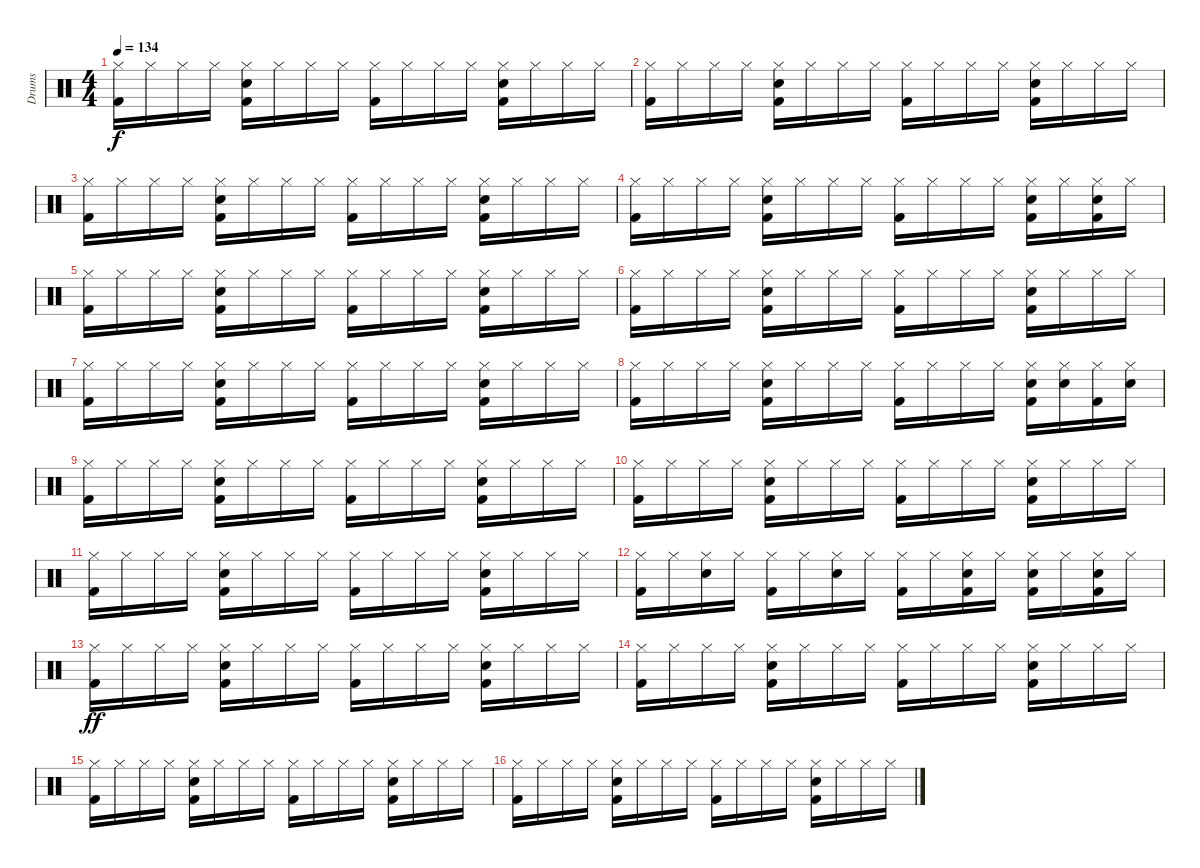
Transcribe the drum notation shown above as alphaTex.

\track ("Drums" "Drums") {instrument percussion}
\staff {score}
\articulation defaults
\ts (4 4)
\tempo 134
\clef neutral
\ks c
("Hi-Hat (closed)" "Kick (hit) 2").16{dy f} "Hi-Hat (closed)".16 "Hi-Hat (closed)".16 "Hi-Hat (closed)".16 ("Hi-Hat (closed)" "Snare (hit) 2" "Kick (hit) 2").16 "Hi-Hat (closed)".16 "Hi-Hat (closed)".16 "Hi-Hat (closed)".16 ("Hi-Hat (closed)" "Kick (hit) 2").16 "Hi-Hat (closed)".16 "Hi-Hat (closed)".16 "Hi-Hat (closed)".16 ("Hi-Hat (closed)" "Snare (hit) 2" "Kick (hit) 2").16 "Hi-Hat (closed)".16 "Hi-Hat (closed)".16 "Hi-Hat (closed)".16 |
("Hi-Hat (closed)" "Kick (hit) 2").16 "Hi-Hat (closed)".16 "Hi-Hat (closed)".16 "Hi-Hat (closed)".16 ("Hi-Hat (closed)" "Snare (hit) 2" "Kick (hit) 2").16 "Hi-Hat (closed)".16 "Hi-Hat (closed)".16 "Hi-Hat (closed)".16 ("Hi-Hat (closed)" "Kick (hit) 2").16 "Hi-Hat (closed)".16 "Hi-Hat (closed)".16 "Hi-Hat (closed)".16 ("Hi-Hat (closed)" "Snare (hit) 2" "Kick (hit) 2").16 "Hi-Hat (closed)".16 "Hi-Hat (closed)".16 "Hi-Hat (closed)".16 |
("Hi-Hat (closed)" "Kick (hit) 2").16 "Hi-Hat (closed)".16 "Hi-Hat (closed)".16 "Hi-Hat (closed)".16 ("Hi-Hat (closed)" "Snare (hit) 2" "Kick (hit) 2").16 "Hi-Hat (closed)".16 "Hi-Hat (closed)".16 "Hi-Hat (closed)".16 ("Hi-Hat (closed)" "Kick (hit) 2").16 "Hi-Hat (closed)".16 "Hi-Hat (closed)".16 "Hi-Hat (closed)".16 ("Hi-Hat (closed)" "Snare (hit) 2" "Kick (hit) 2").16 "Hi-Hat (closed)".16 "Hi-Hat (closed)".16 "Hi-Hat (closed)".16 |
("Hi-Hat (closed)" "Kick (hit) 2").16 "Hi-Hat (closed)".16 "Hi-Hat (closed)".16 "Hi-Hat (closed)".16 ("Hi-Hat (closed)" "Snare (hit) 2" "Kick (hit) 2").16 "Hi-Hat (closed)".16 "Hi-Hat (closed)".16 "Hi-Hat (closed)".16 ("Hi-Hat (closed)" "Kick (hit) 2").16 "Hi-Hat (closed)".16 "Hi-Hat (closed)".16 "Hi-Hat (closed)".16 ("Hi-Hat (closed)" "Snare (hit) 2" "Kick (hit) 2").16 "Hi-Hat (closed)".16 ("Hi-Hat (closed)" "Snare (hit) 2" "Kick (hit) 2").16 "Hi-Hat (closed)".16 |
("Hi-Hat (closed)" "Kick (hit) 2").16 "Hi-Hat (closed)".16 "Hi-Hat (closed)".16 "Hi-Hat (closed)".16 ("Hi-Hat (closed)" "Snare (hit) 2" "Kick (hit) 2").16 "Hi-Hat (closed)".16 "Hi-Hat (closed)".16 "Hi-Hat (closed)".16 ("Hi-Hat (closed)" "Kick (hit) 2").16 "Hi-Hat (closed)".16 "Hi-Hat (closed)".16 "Hi-Hat (closed)".16 ("Hi-Hat (closed)" "Snare (hit) 2" "Kick (hit) 2").16 "Hi-Hat (closed)".16 "Hi-Hat (closed)".16 "Hi-Hat (closed)".16 |
("Hi-Hat (closed)" "Kick (hit) 2").16 "Hi-Hat (closed)".16 "Hi-Hat (closed)".16 "Hi-Hat (closed)".16 ("Hi-Hat (closed)" "Snare (hit) 2" "Kick (hit) 2").16 "Hi-Hat (closed)".16 "Hi-Hat (closed)".16 "Hi-Hat (closed)".16 ("Hi-Hat (closed)" "Kick (hit) 2").16 "Hi-Hat (closed)".16 "Hi-Hat (closed)".16 "Hi-Hat (closed)".16 ("Hi-Hat (closed)" "Snare (hit) 2" "Kick (hit) 2").16 "Hi-Hat (closed)".16 "Hi-Hat (closed)".16 "Hi-Hat (closed)".16 |
("Hi-Hat (closed)" "Kick (hit) 2").16 "Hi-Hat (closed)".16 "Hi-Hat (closed)".16 "Hi-Hat (closed)".16 ("Hi-Hat (closed)" "Snare (hit) 2" "Kick (hit) 2").16 "Hi-Hat (closed)".16 "Hi-Hat (closed)".16 "Hi-Hat (closed)".16 ("Hi-Hat (closed)" "Kick (hit) 2").16 "Hi-Hat (closed)".16 "Hi-Hat (closed)".16 "Hi-Hat (closed)".16 ("Hi-Hat (closed)" "Snare (hit) 2" "Kick (hit) 2").16 "Hi-Hat (closed)".16 "Hi-Hat (closed)".16 "Hi-Hat (closed)".16 |
("Hi-Hat (closed)" "Kick (hit) 2").16 "Hi-Hat (closed)".16 "Hi-Hat (closed)".16 "Hi-Hat (closed)".16 ("Hi-Hat (closed)" "Snare (hit) 2" "Kick (hit) 2").16 "Hi-Hat (closed)".16 "Hi-Hat (closed)".16 "Hi-Hat (closed)".16 ("Hi-Hat (closed)" "Kick (hit) 2").16 "Hi-Hat (closed)".16 "Hi-Hat (closed)".16 "Hi-Hat (closed)".16 ("Hi-Hat (closed)" "Snare (hit) 2" "Kick (hit) 2").16 ("Hi-Hat (closed)" "Snare (hit) 2").16 ("Hi-Hat (closed)" "Kick (hit) 2").16 ("Hi-Hat (closed)" "Snare (hit) 2").16 |
("Hi-Hat (closed)" "Kick (hit) 2").16 "Hi-Hat (closed)".16 "Hi-Hat (closed)".16 "Hi-Hat (closed)".16 ("Hi-Hat (closed)" "Snare (hit) 2" "Kick (hit) 2").16 "Hi-Hat (closed)".16 "Hi-Hat (closed)".16 "Hi-Hat (closed)".16 ("Hi-Hat (closed)" "Kick (hit) 2").16 "Hi-Hat (closed)".16 "Hi-Hat (closed)".16 "Hi-Hat (closed)".16 ("Hi-Hat (closed)" "Snare (hit) 2" "Kick (hit) 2").16 "Hi-Hat (closed)".16 "Hi-Hat (closed)".16 "Hi-Hat (closed)".16 |
("Hi-Hat (closed)" "Kick (hit) 2").16 "Hi-Hat (closed)".16 "Hi-Hat (closed)".16 "Hi-Hat (closed)".16 ("Hi-Hat (closed)" "Snare (hit) 2" "Kick (hit) 2").16 "Hi-Hat (closed)".16 "Hi-Hat (closed)".16 "Hi-Hat (closed)".16 ("Hi-Hat (closed)" "Kick (hit) 2").16 "Hi-Hat (closed)".16 "Hi-Hat (closed)".16 "Hi-Hat (closed)".16 ("Hi-Hat (closed)" "Snare (hit) 2" "Kick (hit) 2").16 "Hi-Hat (closed)".16 "Hi-Hat (closed)".16 "Hi-Hat (closed)".16 |
("Hi-Hat (closed)" "Kick (hit) 2").16 "Hi-Hat (closed)".16 "Hi-Hat (closed)".16 "Hi-Hat (closed)".16 ("Hi-Hat (closed)" "Snare (hit) 2" "Kick (hit) 2").16 "Hi-Hat (closed)".16 "Hi-Hat (closed)".16 "Hi-Hat (closed)".16 ("Hi-Hat (closed)" "Kick (hit) 2").16 "Hi-Hat (closed)".16 "Hi-Hat (closed)".16 "Hi-Hat (closed)".16 ("Hi-Hat (closed)" "Snare (hit) 2" "Kick (hit) 2").16 "Hi-Hat (closed)".16 "Hi-Hat (closed)".16 "Hi-Hat (closed)".16 |
("Hi-Hat (closed)" "Kick (hit) 2").16 "Hi-Hat (closed)".16 ("Hi-Hat (closed)" "Snare (hit) 2").16 "Hi-Hat (closed)".16 ("Hi-Hat (closed)" "Kick (hit) 2").16 "Hi-Hat (closed)".16 ("Hi-Hat (closed)" "Snare (hit) 2").16 "Hi-Hat (closed)".16 ("Hi-Hat (closed)" "Kick (hit) 2").16 "Hi-Hat (closed)".16 ("Hi-Hat (closed)" "Snare (hit) 2" "Kick (hit) 2").16 "Hi-Hat (closed)".16 ("Hi-Hat (closed)" "Snare (hit) 2" "Kick (hit) 2").16 "Hi-Hat (closed)".16 ("Hi-Hat (closed)" "Snare (hit) 2" "Kick (hit) 2").16 "Hi-Hat (closed)".16 |
("Hi-Hat (closed)" "Kick (hit) 2").16{dy ff} "Hi-Hat (closed)".16 "Hi-Hat (closed)".16 "Hi-Hat (closed)".16 ("Hi-Hat (closed)" "Snare (hit) 2" "Kick (hit) 2").16 "Hi-Hat (closed)".16 "Hi-Hat (closed)".16 "Hi-Hat (closed)".16 ("Hi-Hat (closed)" "Kick (hit) 2").16 "Hi-Hat (closed)".16 "Hi-Hat (closed)".16 "Hi-Hat (closed)".16 ("Hi-Hat (closed)" "Snare (hit) 2" "Kick (hit) 2").16 "Hi-Hat (closed)".16 "Hi-Hat (closed)".16 "Hi-Hat (closed)".16 |
("Hi-Hat (closed)" "Kick (hit) 2").16 "Hi-Hat (closed)".16 "Hi-Hat (closed)".16 "Hi-Hat (closed)".16 ("Hi-Hat (closed)" "Snare (hit) 2" "Kick (hit) 2").16 "Hi-Hat (closed)".16 "Hi-Hat (closed)".16 "Hi-Hat (closed)".16 ("Hi-Hat (closed)" "Kick (hit) 2").16 "Hi-Hat (closed)".16 "Hi-Hat (closed)".16 "Hi-Hat (closed)".16 ("Hi-Hat (closed)" "Snare (hit) 2" "Kick (hit) 2").16 "Hi-Hat (closed)".16 "Hi-Hat (closed)".16 "Hi-Hat (closed)".16 |
("Hi-Hat (closed)" "Kick (hit) 2").16 "Hi-Hat (closed)".16 "Hi-Hat (closed)".16 "Hi-Hat (closed)".16 ("Hi-Hat (closed)" "Snare (hit) 2" "Kick (hit) 2").16 "Hi-Hat (closed)".16 "Hi-Hat (closed)".16 "Hi-Hat (closed)".16 ("Hi-Hat (closed)" "Kick (hit) 2").16 "Hi-Hat (closed)".16 "Hi-Hat (closed)".16 "Hi-Hat (closed)".16 ("Hi-Hat (closed)" "Snare (hit) 2" "Kick (hit) 2").16 "Hi-Hat (closed)".16 "Hi-Hat (closed)".16 "Hi-Hat (closed)".16 |
("Hi-Hat (closed)" "Kick (hit) 2").16 "Hi-Hat (closed)".16 "Hi-Hat (closed)".16 "Hi-Hat (closed)".16 ("Hi-Hat (closed)" "Snare (hit) 2" "Kick (hit) 2").16 "Hi-Hat (closed)".16 "Hi-Hat (closed)".16 "Hi-Hat (closed)".16 ("Hi-Hat (closed)" "Kick (hit) 2").16 "Hi-Hat (closed)".16 "Hi-Hat (closed)".16 "Hi-Hat (closed)".16 ("Hi-Hat (closed)" "Snare (hit) 2" "Kick (hit) 2").16 "Hi-Hat (closed)".16 "Hi-Hat (closed)".16 "Hi-Hat (closed)".16
